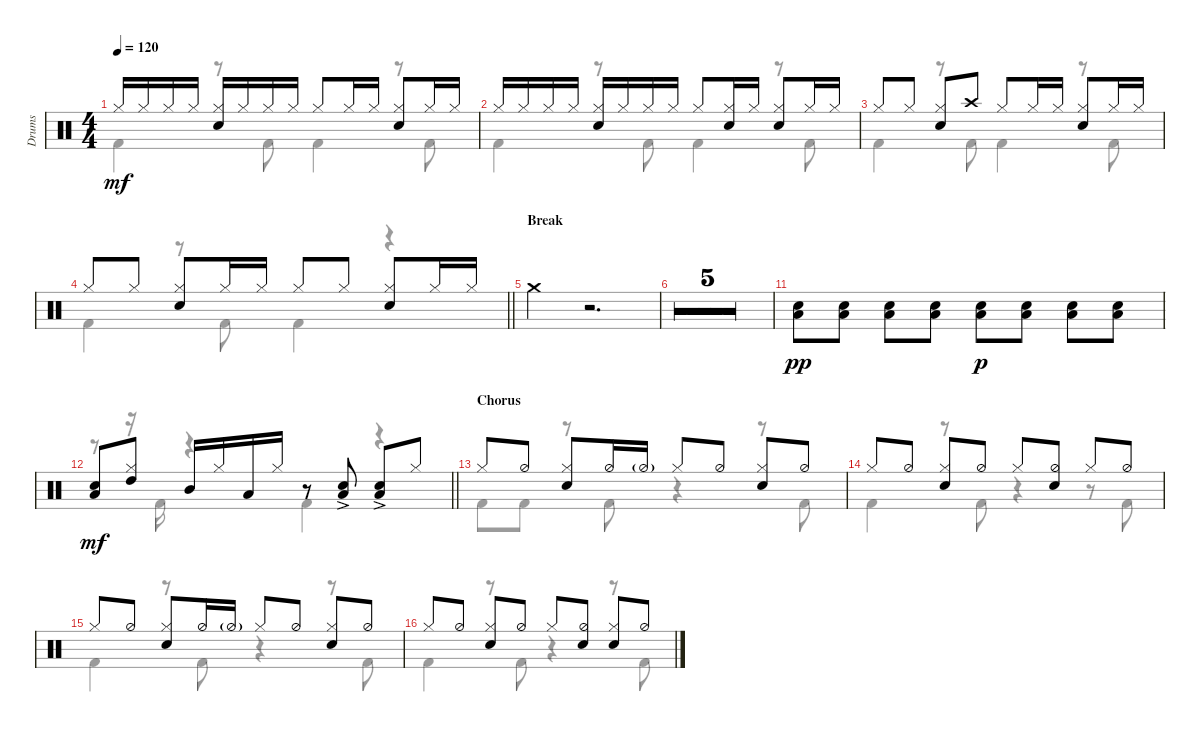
\defaultSystemsLayout 4
\bracketExtendMode groupsimilarinstruments
\otherSystemsTrackNameOrientation horizontal
\track ("Drums" "Drums") {multiBarRest instrument percussion}
\staff {score}
\articulation defaults
\voice
\ts (4 4)
\tempo 120
\clef neutral
\ks c "Hi-Hat (closed)".16{dy mf beam Up} "Hi-Hat (closed)".16{beam Up} "Hi-Hat (closed)".16{beam Up} "Hi-Hat (closed)".16{beam Up}
("Hi-Hat (closed)" "Snare (hit) 2").16{beam Up} "Hi-Hat (closed)".16{beam Up} "Hi-Hat (closed)".16{beam Up} "Hi-Hat (closed)".16{beam Up} "Hi-Hat (closed)".8{beam Up} "Hi-Hat (closed)".16{beam Up} "Hi-Hat (closed)".16{beam Up} ("Hi-Hat (closed)" "Snare (hit) 2").8{beam Up} "Hi-Hat (closed)".16{beam Up} "Hi-Hat (closed)".16{beam Up} |
"Hi-Hat (closed)".16{beam Up} "Hi-Hat (closed)".16{beam Up} "Hi-Hat (closed)".16{beam Up} "Hi-Hat (closed)".16{beam Up} ("Hi-Hat (closed)" "Snare (hit) 2").16{beam Up} "Hi-Hat (closed)".16{beam Up} "Hi-Hat (closed)".16{beam Up} "Hi-Hat (closed)".16{beam Up} "Hi-Hat (closed)".8{beam Up} ("Hi-Hat (closed)" "Snare (hit) 2").16{beam Up} "Hi-Hat (closed)".16{beam Up} ("Hi-Hat (closed)" "Snare (hit) 2").8{beam Up} "Hi-Hat (closed)".16{beam Up} "Hi-Hat (closed)".16{beam Up} |
"Hi-Hat (closed)".8{beam Up} "Hi-Hat (closed)".8{beam Up} ("Hi-Hat (closed)" "Snare (hit) 2").8{beam Up} "Crash high (hit)".8{beam Up} "Hi-Hat (closed)".8{beam Up} "Hi-Hat (closed)".16{beam Up} "Hi-Hat (closed)".16{beam Up} ("Hi-Hat (closed)" "Snare (hit) 2").8{beam Up} "Hi-Hat (closed)".16{beam Up} "Hi-Hat (closed)".16{beam Up} |
\barLineRight lightlight "Hi-Hat (closed)".8{beam Up} "Hi-Hat (closed)".8{beam Up}
("Hi-Hat (closed)" "Snare (hit) 2").8{beam Up} "Hi-Hat (closed)".16{beam Up} "Hi-Hat (closed)".16{beam Up} "Hi-Hat (closed)".8{beam Up} "Hi-Hat (closed)".8{beam Up} ("Hi-Hat (closed)" "Snare (hit) 2").8{beam Up} "Hi-Hat (closed)".16{beam Up} "Hi-Hat (closed)".16{beam Up} |
\section ("" "Break")
"Crash medium (hit)".4{beam Down} r.2{d beam Down} |
|
|
|
|
|
("Snare (hit) 2" "Low Tom (hit)").8{dy pp beam Down} ("Snare (hit) 2" "Low Tom (hit)").8{beam Down} ("Snare (hit) 2" "Low Tom (hit)").8{beam Down} ("Snare (hit) 2" "Low Tom (hit)").8{beam Down} ("Snare (hit) 2" "Low Tom (hit)").8{dy p beam Down} ("Snare (hit) 2" "Low Tom (hit)").8{beam Down} ("Snare (hit) 2" "Low Tom (hit)").8{beam Down} ("Snare (hit) 2" "Low Tom (hit)").8{beam Down} |
\barLineRight lightlight
("Snare (hit) 2" "Low Tom (hit)").8{dy mf beam Up} ("High Tom (hit)" "Hi-Hat (closed)").8{beam Up} "Mid Tom (hit)".16{beam Up} "Hi-Hat (closed)".16{beam Up} "Low Tom (hit)".16{beam Up} "Hi-Hat (closed)".16{beam Up} r.8{beam Up} ("Snare (hit) 2"{ac} "Low Tom (hit)"{ac}).8{beam Up} ("Snare (hit) 2"{ac} "Low Tom (hit)"{ac}).8{beam Up} "Hi-Hat (closed)".8{beam Up} |
\section ("" "Chorus")
"Hi-Hat (closed)".8{beam Up} "Hi-Hat (half)".8{beam Up} ("Hi-Hat (closed)" "Snare (hit) 2").8{beam Up} "Hi-Hat (half)".16{beam Up} "Hi-Hat (half)"{g}.16{beam Up} "Hi-Hat (closed)".8{beam Up} "Hi-Hat (half)".8{beam Up} ("Hi-Hat (closed)" "Snare (hit) 2").8{beam Up} "Hi-Hat (half)".8{beam Up} |
"Hi-Hat (closed)".8{beam Up} "Hi-Hat (half)".8{beam Up} ("Hi-Hat (closed)" "Snare (hit) 2").8{beam Up} "Hi-Hat (half)".8{beam Up} "Hi-Hat (closed)".8{beam Up} ("Hi-Hat (half)" "Snare (hit) 2").8{beam Up} "Hi-Hat (closed)".8{beam Up} "Hi-Hat (half)".8{beam Up} |
"Hi-Hat (closed)".8{beam Up} "Hi-Hat (half)".8{beam Up} ("Hi-Hat (closed)" "Snare (hit) 2").8{beam Up} "Hi-Hat (half)".16{beam Up} "Hi-Hat (half)"{g}.16{beam Up} "Hi-Hat (closed)".8{beam Up} "Hi-Hat (half)".8{beam Up} ("Hi-Hat (closed)" "Snare (hit) 2").8{beam Up} "Hi-Hat (half)".8{beam Up} |
"Hi-Hat (closed)".8{beam Up} "Hi-Hat (half)".8{beam Up} ("Hi-Hat (closed)" "Snare (hit) 2").8{beam Up} "Hi-Hat (half)".8{beam Up} "Hi-Hat (closed)".8{beam Up} ("Hi-Hat (half)" "Snare (hit) 2").8{beam Up} ("Hi-Hat (closed)" "Snare (hit) 2").8{beam Up} "Hi-Hat (half)".8{beam Up}
\voice
\clef neutral
\ottava regular
\simile none
\ks c "Kick (hit) 2".4{dy mf beam Down}
r.8{beam Down} "Kick (hit) 2".8{beam Down} "Kick (hit) 2".4{beam Down} r.8{beam Down} "Kick (hit) 2".8{beam Down} |
"Kick (hit) 2".4{beam Down} r.8{beam Down} "Kick (hit) 2".8{beam Down} "Kick (hit) 2".4{beam Down} r.8{beam Down} "Kick (hit) 2".8{beam Down} |
"Kick (hit) 2".4{beam Down} r.8{beam Down} "Kick (hit) 2".8{beam Down} "Kick (hit) 2".4{beam Down} r.8{beam Down} "Kick (hit) 2".8{beam Down} |
\barLineRight lightlight "Kick (hit) 2".4{beam Down}
r.8{beam Down} "Kick (hit) 2".8{beam Down} "Kick (hit) 2".4{beam Down} r.4{beam Down} |
|
|
|
|
|
|
|
\barLineRight lightlight
r.8{beam Down} r.16{beam Down} "Kick (hit) 2".16{beam Down} r.4{beam Down} "Kick (hit) 2".4{beam Down} r.4{beam Down} |
"Kick (hit) 2".8{beam Down} "Kick (hit) 2".8{beam Down} r.8{beam Down} "Kick (hit) 2".8{beam Down} r.4{beam Down} r.8{beam Down} "Kick (hit) 2".8{beam Down} |
"Kick (hit) 2".4{beam Down} r.8{beam Down} "Kick (hit) 2".8{beam Down} r.4{beam Down} r.8{beam Down} "Kick (hit) 2".8{beam Down} |
"Kick (hit) 2".4{beam Down} r.8{beam Down} "Kick (hit) 2".8{beam Down} r.4{beam Down} r.8{beam Down} "Kick (hit) 2".8{beam Down} |
"Kick (hit) 2".4{beam Down} r.8{beam Down} "Kick (hit) 2".8{beam Down} r.4{beam Down} r.8{beam Down} "Kick (hit) 2".8{beam Down}
